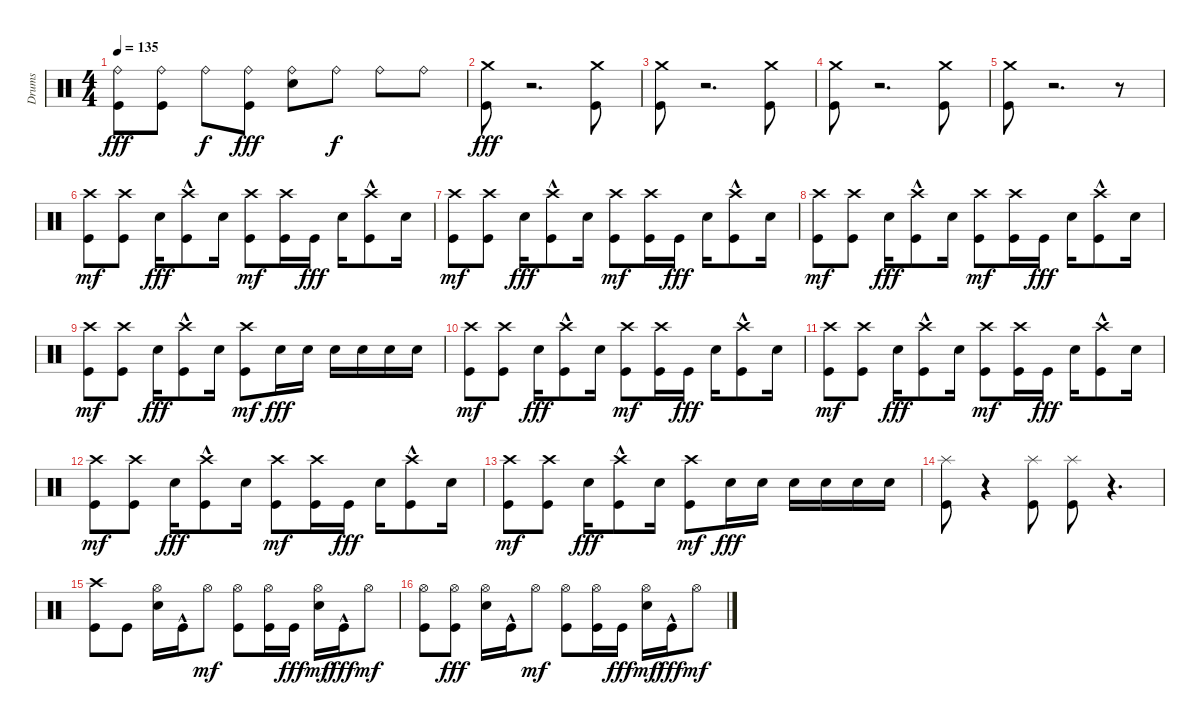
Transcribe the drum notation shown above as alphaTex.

\track ("Drums" "Drums") {instrument percussion}
\staff {score}
\articulation defaults
\ts (4 4)
\tempo 135
\clef neutral
\ks c
("Kick (hit)" "Ride (bell)").8{dy fff} ("Kick (hit)" "Ride (bell)").8 "Ride (bell)".8{dy f} ("Kick (hit)" "Ride (bell)").8{dy fff} ("Electric Snare (hit)" "Ride (bell)").8 "Ride (bell)".8{dy f} "Ride (bell)".8 "Ride (bell)".8 |
("Kick (hit)" "Crash medium (hit)").8{dy fff} r.2{d} ("Crash medium (hit)" "Kick (hit)").8 |
("Kick (hit)" "Crash medium (hit)").8 r.2{d} ("Kick (hit)" "Crash medium (hit)").8 |
("Kick (hit)" "Crash medium (hit)").8 r.2{d} ("Kick (hit)" "Crash medium (hit)").8 |
("Crash medium (hit)" "Kick (hit)").8 r.2{d} r.8 |
("Kick (hit)" "Crash high (hit)").8{dy mf} ("Kick (hit)" "Crash high (hit)").8 "Electric Snare (hit)".16{dy fff} ("Crash high (hit)" "Kick (hit)"{hac}).8 "Electric Snare (hit)".16 ("Kick (hit)" "Crash high (hit)").8{dy mf} ("Kick (hit)" "Crash high (hit)").16 "Kick (hit)".16{dy fff} "Electric Snare (hit)".16 ("Crash high (hit)" "Kick (hit)"{hac}).8 "Electric Snare (hit)".16 |
("Kick (hit)" "Crash high (hit)").8{dy mf} ("Kick (hit)" "Crash high (hit)").8 "Electric Snare (hit)".16{dy fff} ("Crash high (hit)" "Kick (hit)"{hac}).8 "Electric Snare (hit)".16 ("Kick (hit)" "Crash high (hit)").8{dy mf} ("Kick (hit)" "Crash high (hit)").16 "Kick (hit)".16{dy fff} "Electric Snare (hit)".16 ("Crash high (hit)" "Kick (hit)"{hac}).8 "Electric Snare (hit)".16 |
("Kick (hit)" "Crash high (hit)").8{dy mf} ("Kick (hit)" "Crash high (hit)").8 "Electric Snare (hit)".16{dy fff} ("Crash high (hit)" "Kick (hit)"{hac}).8 "Electric Snare (hit)".16 ("Kick (hit)" "Crash high (hit)").8{dy mf} ("Kick (hit)" "Crash high (hit)").16 "Kick (hit)".16{dy fff} "Electric Snare (hit)".16 ("Crash high (hit)" "Kick (hit)"{hac}).8 "Electric Snare (hit)".16 |
("Kick (hit)" "Crash high (hit)").8{dy mf} ("Kick (hit)" "Crash high (hit)").8 "Electric Snare (hit)".16{dy fff} ("Crash high (hit)" "Kick (hit)"{hac}).8 "Electric Snare (hit)".16 ("Kick (hit)" "Crash high (hit)").8{dy mf} "Electric Snare (hit)".16{dy fff} "Electric Snare (hit)".16 "Electric Snare (hit)".16 "Electric Snare (hit)".16 "Electric Snare (hit)".16 "Electric Snare (hit)".16 |
("Kick (hit)" "Crash high (hit)").8{dy mf} ("Kick (hit)" "Crash high (hit)").8 "Electric Snare (hit)".16{dy fff} ("Crash high (hit)" "Kick (hit)"{hac}).8 "Electric Snare (hit)".16 ("Kick (hit)" "Crash high (hit)").8{dy mf} ("Kick (hit)" "Crash high (hit)").16 "Kick (hit)".16{dy fff} "Electric Snare (hit)".16 ("Crash high (hit)" "Kick (hit)"{hac}).8 "Electric Snare (hit)".16 |
("Kick (hit)" "Crash high (hit)").8{dy mf} ("Kick (hit)" "Crash high (hit)").8 "Electric Snare (hit)".16{dy fff} ("Crash high (hit)" "Kick (hit)"{hac}).8 "Electric Snare (hit)".16 ("Kick (hit)" "Crash high (hit)").8{dy mf} ("Kick (hit)" "Crash high (hit)").16 "Kick (hit)".16{dy fff} "Electric Snare (hit)".16 ("Crash high (hit)" "Kick (hit)"{hac}).8 "Electric Snare (hit)".16 |
("Kick (hit)" "Crash high (hit)").8{dy mf} ("Kick (hit)" "Crash high (hit)").8 "Electric Snare (hit)".16{dy fff} ("Crash high (hit)" "Kick (hit)"{hac}).8 "Electric Snare (hit)".16 ("Kick (hit)" "Crash high (hit)").8{dy mf} ("Kick (hit)" "Crash high (hit)").16 "Kick (hit)".16{dy fff} "Electric Snare (hit)".16 ("Crash high (hit)" "Kick (hit)"{hac}).8 "Electric Snare (hit)".16 |
("Kick (hit)" "Crash high (hit)").8{dy mf} ("Kick (hit)" "Crash high (hit)").8 "Electric Snare (hit)".16{dy fff} ("Crash high (hit)" "Kick (hit)"{hac}).8 "Electric Snare (hit)".16 ("Kick (hit)" "Crash high (hit)").8{dy mf} "Electric Snare (hit)".16{dy fff} "Electric Snare (hit)".16 "Electric Snare (hit)".16 "Electric Snare (hit)".16 "Electric Snare (hit)".16 "Electric Snare (hit)".16 |
("Kick (hit)" "Splash (hit)").8 r.4 ("Kick (hit)" "Splash (hit)").8 ("Kick (hit)" "Splash (hit)").8 r.4{d} |
("Kick (hit)" "Crash high (hit)").8 "Kick (hit)".8 ("Hi-Hat (open)" "Electric Snare (hit)").16 "Kick (hit)"{hac}.16 "Hi-Hat (open)".8{dy mf} ("Kick (hit)" "Hi-Hat (open)").8 ("Kick (hit)" "Hi-Hat (open)").16 "Kick (hit)".16{dy fff} ("Electric Snare (hit)" "Hi-Hat (open)").16{dy mf} "Kick (hit)"{hac}.16{dy fff} "Hi-Hat (open)".8{dy mf} |
("Kick (hit)" "Hi-Hat (open)").8 ("Hi-Hat (open)" "Kick (hit)").8{dy fff} ("Hi-Hat (open)" "Electric Snare (hit)").16 "Kick (hit)"{hac}.16 "Hi-Hat (open)".8{dy mf} ("Kick (hit)" "Hi-Hat (open)").8 ("Kick (hit)" "Hi-Hat (open)").16 "Kick (hit)".16{dy fff} ("Electric Snare (hit)" "Hi-Hat (open)").16{dy mf} "Kick (hit)"{hac}.16{dy fff} "Hi-Hat (open)".8{dy mf}
